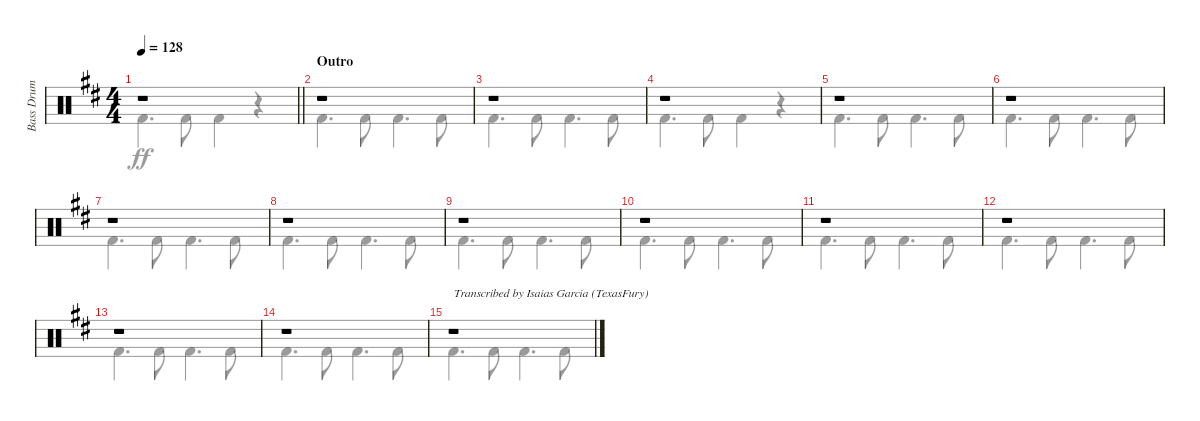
\track ("Bass Drum" "Bass Drum") {instrument percussion}
\staff {score}
\articulation defaults
\voice
\ts (4 4)
\tempo 128
\clef neutral
\barLineRight lightlight
\ks bminor
r.1{dy f} |
\section ("" "Outro")
r.1 |
r.1 |
r.1 |
r.1 |
r.1 |
r.1 |
r.1 |
r.1 |
r.1 |
r.1 |
r.1 |
r.1 |
r.1 |
r.1{txt "Transcribed by Isaias Garcia (TexasFury)"}
\voice
\clef neutral
\ottava regular
\simile none
\barLineRight lightlight
\ks bminor "Kick (hit) 2".4{d dy ff} "Kick (hit) 2".8 "Kick (hit) 2".4
r.4 |
"Kick (hit) 2".4{d} "Kick (hit) 2".8 "Kick (hit) 2".4{d} "Kick (hit) 2".8 |
"Kick (hit) 2".4{d} "Kick (hit) 2".8 "Kick (hit) 2".4{d} "Kick (hit) 2".8 |
"Kick (hit) 2".4{d} "Kick (hit) 2".8 "Kick (hit) 2".4 r.4 |
"Kick (hit) 2".4{d} "Kick (hit) 2".8 "Kick (hit) 2".4{d} "Kick (hit) 2".8 |
"Kick (hit) 2".4{d} "Kick (hit) 2".8 "Kick (hit) 2".4{d} "Kick (hit) 2".8 |
"Kick (hit) 2".4{d} "Kick (hit) 2".8 "Kick (hit) 2".4{d} "Kick (hit) 2".8 |
"Kick (hit) 2".4{d} "Kick (hit) 2".8 "Kick (hit) 2".4{d} "Kick (hit) 2".8 |
"Kick (hit) 2".4{d} "Kick (hit) 2".8 "Kick (hit) 2".4{d} "Kick (hit) 2".8 |
"Kick (hit) 2".4{d} "Kick (hit) 2".8 "Kick (hit) 2".4{d} "Kick (hit) 2".8 |
"Kick (hit) 2".4{d} "Kick (hit) 2".8 "Kick (hit) 2".4{d} "Kick (hit) 2".8 |
"Kick (hit) 2".4{d} "Kick (hit) 2".8 "Kick (hit) 2".4{d} "Kick (hit) 2".8 |
"Kick (hit) 2".4{d} "Kick (hit) 2".8 "Kick (hit) 2".4{d} "Kick (hit) 2".8 |
"Kick (hit) 2".4{d} "Kick (hit) 2".8 "Kick (hit) 2".4{d} "Kick (hit) 2".8 |
"Kick (hit) 2".4{d} "Kick (hit) 2".8 "Kick (hit) 2".4{d} "Kick (hit) 2".8
